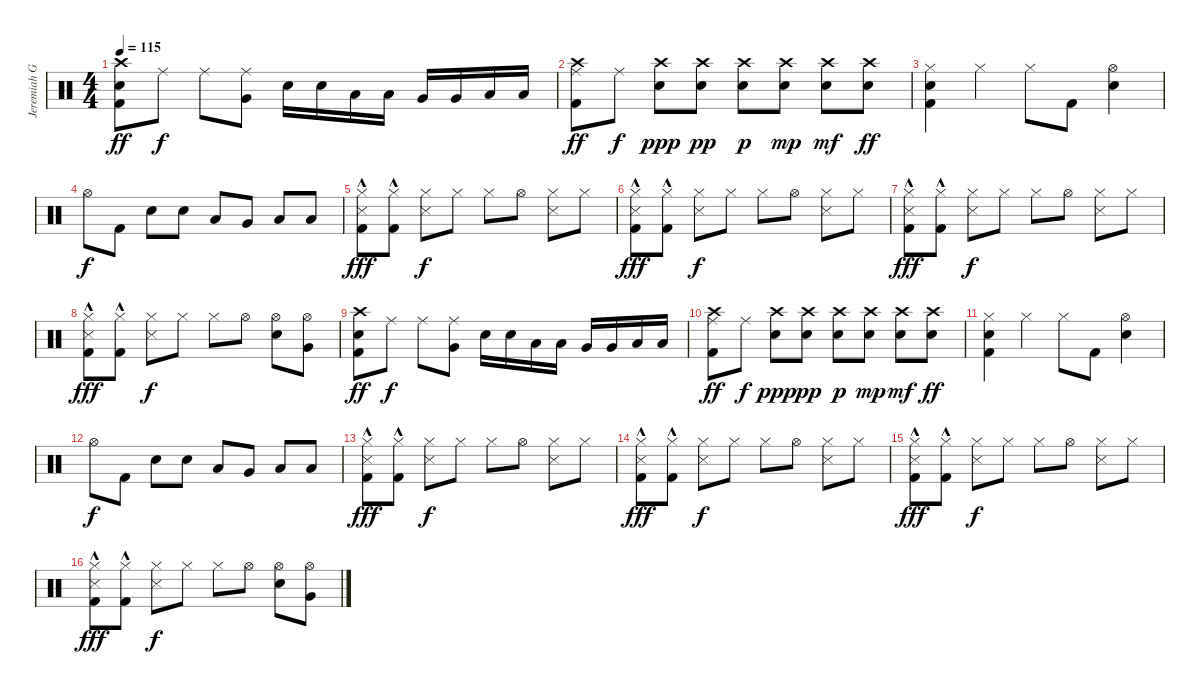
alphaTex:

\track ("Jeremiah Green" "Jeremiah G") {instrument percussion}
\staff {score}
\articulation defaults
\ts (4 4)
\tempo 115
\clef neutral
\ks c
("Crash high (hit)" "Electric Snare (hit)" "Kick (hit) 2").8{dy ff} "Ride (middle)".8{dy f} "Ride (middle)".8 ("Ride (middle)" "Very Low Tom (hit)").8 "Electric Snare (hit)".16 "Electric Snare (hit)".16 "Low Tom (hit)".16 "Low Tom (hit)".16 "Very Low Tom (hit)".16 "Very Low Tom (hit)".16 "Low Floor Tom (hit)".16 "Low Floor Tom (hit)".16 |
("Crash high (hit)" "Ride (middle)" "Kick (hit) 2").8{dy ff} "Ride (middle)".8{dy f} ("Crash high (hit)" "Electric Snare (hit)").8{dy ppp} ("Crash high (hit)" "Electric Snare (hit)").8{dy pp} ("Crash high (hit)" "Electric Snare (hit)").8{dy p} ("Crash high (hit)" "Electric Snare (hit)").8{dy mp} ("Crash high (hit)" "Electric Snare (hit)").8{dy mf} ("Crash high (hit)" "Electric Snare (hit)").8{dy ff} |
("Hi-Hat (closed)" "Electric Snare (hit)" "Kick (hit) 2").4 "Hi-Hat (closed)".4 "Hi-Hat (closed)".8 "Kick (hit) 2".8 ("Hi-Hat (open)" "Electric Snare (hit)").4 |
"Hi-Hat (open)".8{dy f} "Kick (hit) 2".8 "Electric Snare (hit)".8 "Electric Snare (hit)".8 "Low Tom (hit)".8 "Very Low Tom (hit)".8 "Low Floor Tom (hit)".8 "Low Floor Tom (hit)".8 |
("Hi-Hat (closed)" "Snare (side stick) 3" "Kick (hit) 2"{hac}).8{dy fff} ("Hi-Hat (closed)" "Kick (hit) 2"{hac}).8 ("Hi-Hat (closed)" "Snare (side stick) 3").8{dy f} "Hi-Hat (closed)".8 "Hi-Hat (closed)".8 "Hi-Hat (open)".8 ("Hi-Hat (closed)" "Snare (side stick) 3").8 "Hi-Hat (closed)".8 |
("Hi-Hat (closed)" "Snare (side stick) 3" "Kick (hit) 2"{hac}).8{dy fff} ("Hi-Hat (closed)" "Kick (hit) 2"{hac}).8 ("Hi-Hat (closed)" "Snare (side stick) 3").8{dy f} "Hi-Hat (closed)".8 "Hi-Hat (closed)".8 "Hi-Hat (open)".8 ("Hi-Hat (closed)" "Snare (side stick) 3").8 "Hi-Hat (closed)".8 |
("Hi-Hat (closed)" "Snare (side stick) 3" "Kick (hit) 2"{hac}).8{dy fff} ("Hi-Hat (closed)" "Kick (hit) 2"{hac}).8 ("Hi-Hat (closed)" "Snare (side stick) 3").8{dy f} "Hi-Hat (closed)".8 "Hi-Hat (closed)".8 "Hi-Hat (open)".8 ("Hi-Hat (closed)" "Snare (side stick) 3").8 "Hi-Hat (closed)".8 |
("Hi-Hat (closed)" "Snare (side stick) 3" "Kick (hit) 2"{hac}).8{dy fff} ("Hi-Hat (closed)" "Kick (hit) 2"{hac}).8 ("Hi-Hat (closed)" "Snare (side stick) 3").8{dy f} "Hi-Hat (closed)".8 "Hi-Hat (closed)".8 "Hi-Hat (open)".8 ("Hi-Hat (open)" "Electric Snare (hit)").8 ("Hi-Hat (open)" "Very Low Tom (hit)").8 |
("Crash high (hit)" "Electric Snare (hit)" "Kick (hit) 2").8{dy ff} "Ride (middle)".8{dy f} "Ride (middle)".8 ("Ride (middle)" "Very Low Tom (hit)").8 "Electric Snare (hit)".16 "Electric Snare (hit)".16 "Low Tom (hit)".16 "Low Tom (hit)".16 "Very Low Tom (hit)".16 "Very Low Tom (hit)".16 "Low Floor Tom (hit)".16 "Low Floor Tom (hit)".16 |
("Crash high (hit)" "Ride (middle)" "Kick (hit) 2").8{dy ff} "Ride (middle)".8{dy f} ("Crash high (hit)" "Electric Snare (hit)").8{dy ppp} ("Crash high (hit)" "Electric Snare (hit)").8{dy pp} ("Crash high (hit)" "Electric Snare (hit)").8{dy p} ("Crash high (hit)" "Electric Snare (hit)").8{dy mp} ("Crash high (hit)" "Electric Snare (hit)").8{dy mf} ("Crash high (hit)" "Electric Snare (hit)").8{dy ff} |
("Hi-Hat (closed)" "Electric Snare (hit)" "Kick (hit) 2").4 "Hi-Hat (closed)".4 "Hi-Hat (closed)".8 "Kick (hit) 2".8 ("Hi-Hat (open)" "Electric Snare (hit)").4 |
"Hi-Hat (open)".8{dy f} "Kick (hit) 2".8 "Electric Snare (hit)".8 "Electric Snare (hit)".8 "Low Tom (hit)".8 "Very Low Tom (hit)".8 "Low Floor Tom (hit)".8 "Low Floor Tom (hit)".8 |
("Hi-Hat (closed)" "Snare (side stick) 3" "Kick (hit) 2"{hac}).8{dy fff} ("Hi-Hat (closed)" "Kick (hit) 2"{hac}).8 ("Hi-Hat (closed)" "Snare (side stick) 3").8{dy f} "Hi-Hat (closed)".8 "Hi-Hat (closed)".8 "Hi-Hat (open)".8 ("Hi-Hat (closed)" "Snare (side stick) 3").8 "Hi-Hat (closed)".8 |
("Hi-Hat (closed)" "Snare (side stick) 3" "Kick (hit) 2"{hac}).8{dy fff} ("Hi-Hat (closed)" "Kick (hit) 2"{hac}).8 ("Hi-Hat (closed)" "Snare (side stick) 3").8{dy f} "Hi-Hat (closed)".8 "Hi-Hat (closed)".8 "Hi-Hat (open)".8 ("Hi-Hat (closed)" "Snare (side stick) 3").8 "Hi-Hat (closed)".8 |
("Hi-Hat (closed)" "Snare (side stick) 3" "Kick (hit) 2"{hac}).8{dy fff} ("Hi-Hat (closed)" "Kick (hit) 2"{hac}).8 ("Hi-Hat (closed)" "Snare (side stick) 3").8{dy f} "Hi-Hat (closed)".8 "Hi-Hat (closed)".8 "Hi-Hat (open)".8 ("Hi-Hat (closed)" "Snare (side stick) 3").8 "Hi-Hat (closed)".8 |
("Hi-Hat (closed)" "Snare (side stick) 3" "Kick (hit) 2"{hac}).8{dy fff} ("Hi-Hat (closed)" "Kick (hit) 2"{hac}).8 ("Hi-Hat (closed)" "Snare (side stick) 3").8{dy f} "Hi-Hat (closed)".8 "Hi-Hat (closed)".8 "Hi-Hat (open)".8 ("Hi-Hat (open)" "Electric Snare (hit)").8 ("Hi-Hat (open)" "Very Low Tom (hit)").8
